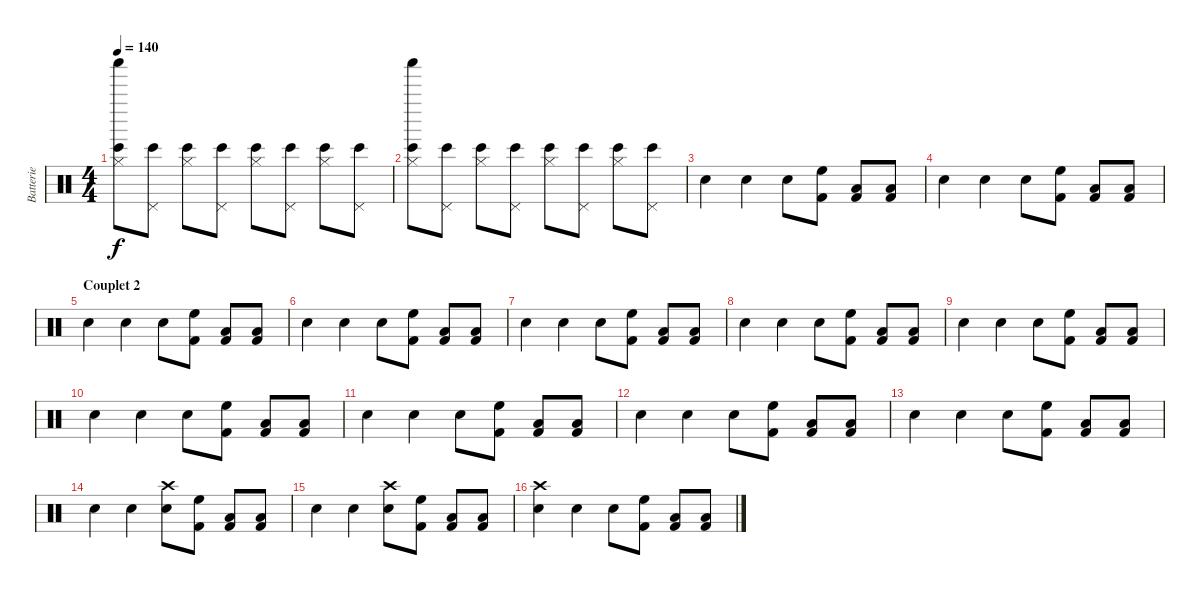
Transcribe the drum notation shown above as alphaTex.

\track ("Batterie" "Batterie") {instrument percussion}
\staff {score}
\articulation defaults
\ts (4 4)
\tempo 140
\clef neutral
\ks c
("Bongo High (hit)" "Shaker (hit)" "Hi-Hat (closed)").8{dy f} ("Bongo High (hit)" "Pedal Hi-Hat (hit)").8 ("Bongo High (hit)" "Hi-Hat (closed)").8 ("Bongo High (hit)" "Pedal Hi-Hat (hit)").8 ("Bongo High (hit)" "Hi-Hat (closed)").8 ("Bongo High (hit)" "Pedal Hi-Hat (hit)").8 ("Bongo High (hit)" "Hi-Hat (closed)").8 ("Bongo High (hit)" "Pedal Hi-Hat (hit)").8 |
("Bongo High (hit)" "Shaker (hit)" "Hi-Hat (closed)").8 ("Bongo High (hit)" "Pedal Hi-Hat (hit)").8 ("Bongo High (hit)" "Hi-Hat (closed)").8 ("Bongo High (hit)" "Pedal Hi-Hat (hit)").8 ("Bongo High (hit)" "Hi-Hat (closed)").8 ("Bongo High (hit)" "Pedal Hi-Hat (hit)").8 ("Bongo High (hit)" "Hi-Hat (closed)").8 ("Bongo High (hit)" "Pedal Hi-Hat (hit)").8 |
"Snare (hit) 2".4{volume 13} "Snare (hit) 2".4 "Snare (hit) 2".8 ("High Floor Tom (hit)" "Kick (hit) 2").8 ("Low Floor Tom (hit)" "Kick (hit) 2").8 ("Low Floor Tom (hit)" "Kick (hit) 2").8 |
"Snare (hit) 2".4 "Snare (hit) 2".4 "Snare (hit) 2".8 ("High Floor Tom (hit)" "Kick (hit) 2").8 ("Low Floor Tom (hit)" "Kick (hit) 2").8 ("Low Floor Tom (hit)" "Kick (hit) 2").8 |
\section ("" "Couplet 2")
"Snare (hit) 2".4 "Snare (hit) 2".4 "Snare (hit) 2".8 ("High Floor Tom (hit)" "Kick (hit) 2").8 ("Low Floor Tom (hit)" "Kick (hit) 2").8 ("Low Floor Tom (hit)" "Kick (hit) 2").8 |
"Snare (hit) 2".4 "Snare (hit) 2".4 "Snare (hit) 2".8 ("High Floor Tom (hit)" "Kick (hit) 2").8 ("Low Floor Tom (hit)" "Kick (hit) 2").8 ("Low Floor Tom (hit)" "Kick (hit) 2").8 |
"Snare (hit) 2".4 "Snare (hit) 2".4 "Snare (hit) 2".8 ("High Floor Tom (hit)" "Kick (hit) 2").8 ("Low Floor Tom (hit)" "Kick (hit) 2").8 ("Low Floor Tom (hit)" "Kick (hit) 2").8 |
"Snare (hit) 2".4 "Snare (hit) 2".4 "Snare (hit) 2".8 ("High Floor Tom (hit)" "Kick (hit) 2").8 ("Low Floor Tom (hit)" "Kick (hit) 2").8 ("Low Floor Tom (hit)" "Kick (hit) 2").8 |
"Snare (hit) 2".4 "Snare (hit) 2".4 "Snare (hit) 2".8 ("High Floor Tom (hit)" "Kick (hit) 2").8 ("Low Floor Tom (hit)" "Kick (hit) 2").8 ("Low Floor Tom (hit)" "Kick (hit) 2").8 |
"Snare (hit) 2".4 "Snare (hit) 2".4 "Snare (hit) 2".8 ("High Floor Tom (hit)" "Kick (hit) 2").8 ("Low Floor Tom (hit)" "Kick (hit) 2").8 ("Low Floor Tom (hit)" "Kick (hit) 2").8 |
"Snare (hit) 2".4 "Snare (hit) 2".4 "Snare (hit) 2".8 ("High Floor Tom (hit)" "Kick (hit) 2").8 ("Low Floor Tom (hit)" "Kick (hit) 2").8 ("Low Floor Tom (hit)" "Kick (hit) 2").8 |
"Snare (hit) 2".4 "Snare (hit) 2".4 "Snare (hit) 2".8 ("High Floor Tom (hit)" "Kick (hit) 2").8 ("Low Floor Tom (hit)" "Kick (hit) 2").8 ("Low Floor Tom (hit)" "Kick (hit) 2").8 |
"Snare (hit) 2".4 "Snare (hit) 2".4 "Snare (hit) 2".8 ("High Floor Tom (hit)" "Kick (hit) 2").8 ("Low Floor Tom (hit)" "Kick (hit) 2").8 ("Low Floor Tom (hit)" "Kick (hit) 2").8 |
"Snare (hit) 2".4 "Snare (hit) 2".4 ("Snare (hit) 2" "Crash high (hit)").8 ("High Floor Tom (hit)" "Kick (hit) 2").8 ("Low Floor Tom (hit)" "Kick (hit) 2").8 ("Low Floor Tom (hit)" "Kick (hit) 2").8 |
"Snare (hit) 2".4 "Snare (hit) 2".4 ("Snare (hit) 2" "Crash high (hit)").8 ("High Floor Tom (hit)" "Kick (hit) 2").8 ("Low Floor Tom (hit)" "Kick (hit) 2").8 ("Low Floor Tom (hit)" "Kick (hit) 2").8 |
("Snare (hit) 2" "Crash high (hit)").4 "Snare (hit) 2".4 "Snare (hit) 2".8 ("High Floor Tom (hit)" "Kick (hit) 2").8 ("Low Floor Tom (hit)" "Kick (hit) 2").8 ("Low Floor Tom (hit)" "Kick (hit) 2").8
